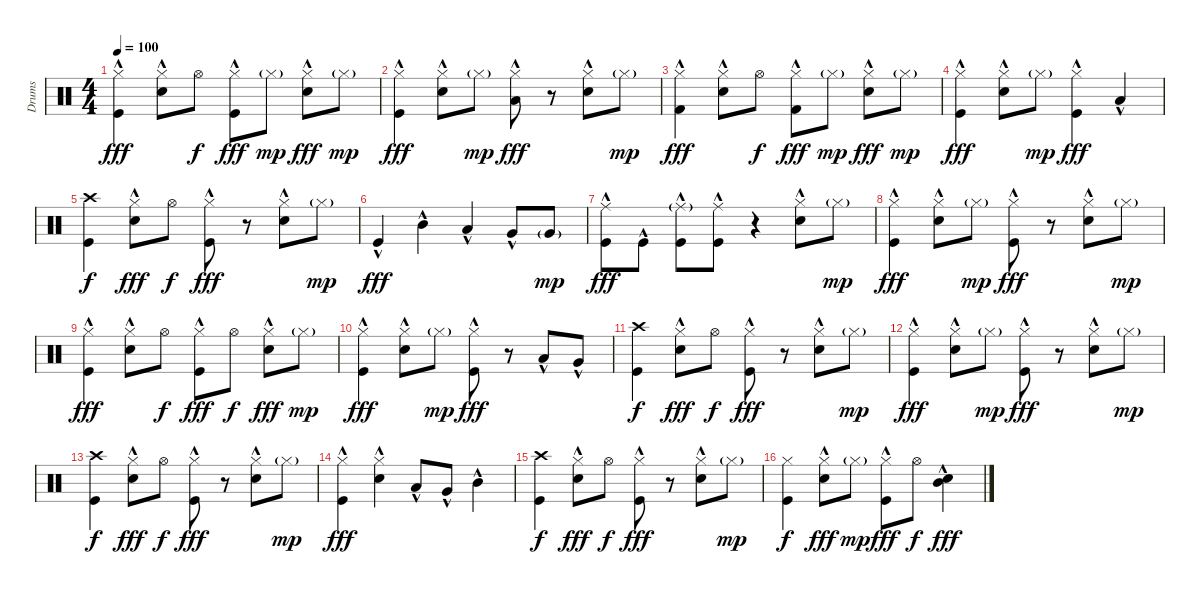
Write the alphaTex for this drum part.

\track ("Drums" "Drums") {instrument percussion}
\staff {score}
\articulation defaults
\ts (4 4)
\tempo 100
\clef neutral
\ks c
("Hi-Hat (closed)"{hac} "Kick (hit)").4{dy fff} ("Hi-Hat (closed)"{hac} "Snare (hit) 2").8 "Hi-Hat (open)".8{dy f} ("Hi-Hat (closed)"{hac} "Kick (hit)").8{dy fff} "Hi-Hat (closed)"{g}.8{dy mp} ("Hi-Hat (closed)"{hac} "Snare (hit) 2").8{dy fff} "Hi-Hat (closed)"{g}.8{dy mp} |
("Hi-Hat (closed)"{hac} "Kick (hit)").4{dy fff} ("Hi-Hat (closed)"{hac} "Snare (hit) 2").8 "Hi-Hat (closed)"{g}.8{dy mp} ("Hi-Hat (closed)"{hac} "Low Tom (hit)"{hac}).8{dy fff} r.8 ("Hi-Hat (closed)"{hac} "Snare (hit) 2").8 "Hi-Hat (closed)"{g}.8{dy mp} |
("Hi-Hat (closed)"{hac} "Kick (hit) 2").4{dy fff} ("Hi-Hat (closed)"{hac} "Snare (hit) 2").8 "Hi-Hat (open)".8{dy f} ("Hi-Hat (closed)"{hac} "Kick (hit) 2").8{dy fff} "Hi-Hat (closed)"{g}.8{dy mp} ("Hi-Hat (closed)"{hac} "Snare (hit) 2").8{dy fff} "Hi-Hat (closed)"{g}.8{dy mp} |
("Hi-Hat (closed)"{hac} "Kick (hit)").4{dy fff} ("Hi-Hat (closed)"{hac} "Snare (hit) 2").8 "Hi-Hat (closed)"{g}.8{dy mp} ("Hi-Hat (closed)"{hac} "Kick (hit)").4{dy fff} "Low Tom (hit)"{hac}.4 |
("Crash high (hit)" "Kick (hit)").4{dy f} ("Hi-Hat (closed)"{hac} "Snare (hit) 2").8{dy fff} "Hi-Hat (open)".8{dy f} ("Hi-Hat (closed)"{hac} "Kick (hit)").8{dy fff} r.8 ("Hi-Hat (closed)"{hac} "Snare (hit) 2").8 "Hi-Hat (closed)"{g}.8{dy mp} |
"Kick (hit)"{hac}.4{dy fff} "Mid Tom (hit)"{hac}.4 "Low Tom (hit)"{hac}.4 "Very Low Tom (hit)"{hac}.8 "Very Low Tom (hit)"{g}.8{dy mp} |
("Ride (middle)" "Kick (hit)"{hac}).8{dy fff} "Kick (hit)"{hac}.8 ("Ride (middle)"{g} "Kick (hit)"{hac}).8 ("Ride (middle)" "Kick (hit)"{hac}).8 r.4 ("Hi-Hat (closed)"{hac} "Snare (hit) 2").8 "Hi-Hat (closed)"{g}.8{dy mp} |
("Hi-Hat (closed)"{hac} "Kick (hit)").4{dy fff} ("Hi-Hat (closed)"{hac} "Snare (hit) 2").8 "Hi-Hat (closed)"{g}.8{dy mp} ("Hi-Hat (closed)"{hac} "Kick (hit)").8{dy fff} r.8 ("Hi-Hat (closed)"{hac} "Snare (hit) 2").8 "Hi-Hat (closed)"{g}.8{dy mp} |
("Hi-Hat (closed)"{hac} "Kick (hit)").4{dy fff} ("Hi-Hat (closed)"{hac} "Snare (hit) 2").8 "Hi-Hat (open)".8{dy f} ("Hi-Hat (closed)"{hac} "Kick (hit)").8{dy fff} "Hi-Hat (open)".8{dy f} ("Hi-Hat (closed)"{hac} "Snare (hit) 2").8{dy fff} "Hi-Hat (closed)"{g}.8{dy mp} |
("Hi-Hat (closed)"{hac} "Kick (hit)").4{dy fff} ("Hi-Hat (closed)"{hac} "Snare (hit) 2").8 "Hi-Hat (closed)"{g}.8{dy mp} ("Hi-Hat (closed)"{hac} "Kick (hit)").8{dy fff} r.8 "Low Tom (hit)"{hac}.8 "Very Low Tom (hit)"{hac}.8 |
("Crash high (hit)" "Kick (hit)").4{dy f} ("Hi-Hat (closed)"{hac} "Snare (hit) 2").8{dy fff} "Hi-Hat (open)".8{dy f} ("Hi-Hat (closed)"{hac} "Kick (hit)").8{dy fff} r.8 ("Hi-Hat (closed)"{hac} "Snare (hit) 2").8 "Hi-Hat (closed)"{g}.8{dy mp} |
("Hi-Hat (closed)"{hac} "Kick (hit)").4{dy fff} ("Hi-Hat (closed)"{hac} "Snare (hit) 2").8 "Hi-Hat (closed)"{g}.8{dy mp} ("Hi-Hat (closed)"{hac} "Kick (hit)").8{dy fff} r.8 ("Hi-Hat (closed)"{hac} "Snare (hit) 2").8 "Hi-Hat (closed)"{g}.8{dy mp} |
("Crash high (hit)" "Kick (hit)").4{dy f} ("Hi-Hat (closed)"{hac} "Snare (hit) 2").8{dy fff} "Hi-Hat (open)".8{dy f} ("Hi-Hat (closed)"{hac} "Kick (hit)").8{dy fff} r.8 ("Hi-Hat (closed)"{hac} "Snare (hit) 2").8 "Hi-Hat (closed)"{g}.8{dy mp} |
("Hi-Hat (closed)"{hac} "Kick (hit)").4{dy fff} ("Hi-Hat (closed)"{hac} "Snare (hit) 2").4 "Low Tom (hit)"{hac}.8 "Very Low Tom (hit)"{hac}.8 "Mid Tom (hit)"{hac}.4 |
("Crash high (hit)" "Kick (hit)").4{dy f} ("Hi-Hat (closed)"{hac} "Snare (hit) 2").8{dy fff} "Hi-Hat (open)".8{dy f} ("Hi-Hat (closed)"{hac} "Kick (hit)").8{dy fff} r.8 ("Hi-Hat (closed)"{hac} "Snare (hit) 2").8 "Hi-Hat (closed)"{g}.8{dy mp} |
("Hi-Hat (closed)" "Kick (hit)").4{dy f} ("Hi-Hat (closed)"{hac} "Snare (hit) 2").8{dy fff} "Hi-Hat (closed)"{g}.8{dy mp} ("Hi-Hat (closed)"{hac} "Kick (hit)").8{dy fff} "Hi-Hat (open)".8{dy f} ("Mid Tom (hit)"{hac} "Snare (hit) 2").4{dy fff}
